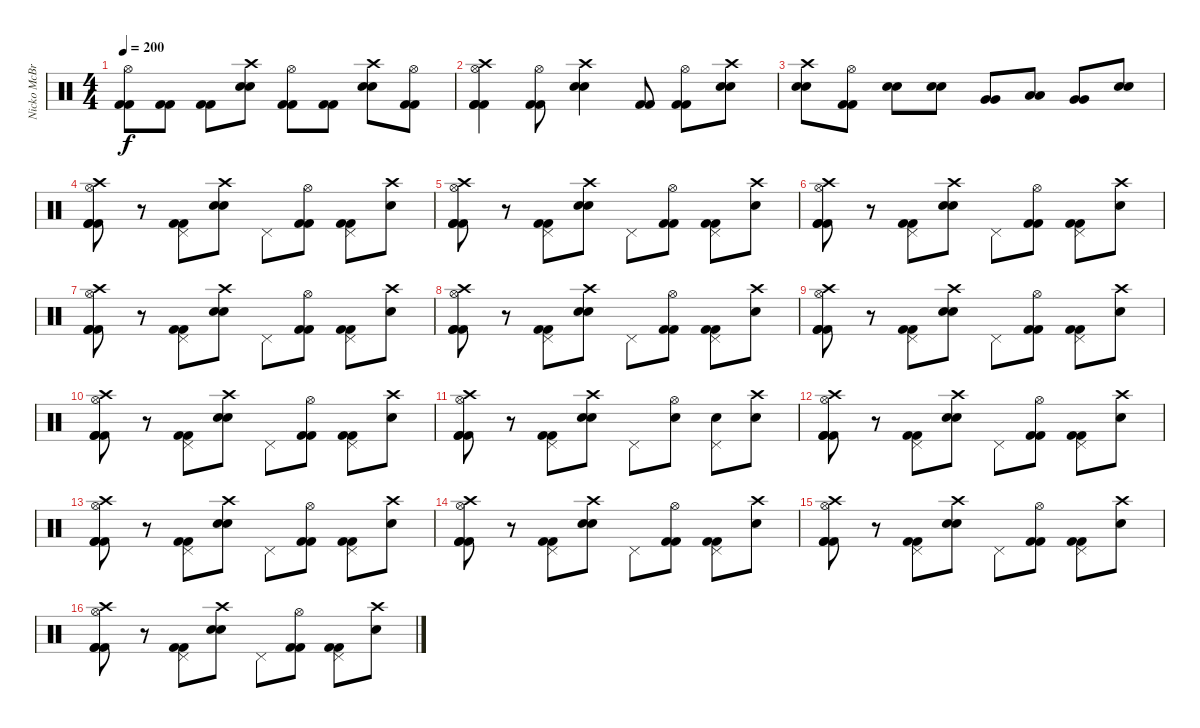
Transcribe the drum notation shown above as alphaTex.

\track ("Nicko McBrain" "Nicko McBr") {instrument percussion}
\staff {score}
\articulation defaults
\ts (4 4)
\tempo 200
\clef neutral
\ks c
("Hi-Hat (open)" "Kick (hit) 2" "Kick (hit) 2").8{dy f} ("Kick (hit) 2" "Kick (hit) 2").8 ("Kick (hit) 2" "Kick (hit) 2").8 ("Crash high (hit)" "Snare (hit) 2" "Snare (hit) 2").8 ("Hi-Hat (open)" "Kick (hit) 2" "Kick (hit) 2").8 ("Kick (hit) 2" "Kick (hit) 2").8 ("Crash high (hit)" "Snare (hit) 2" "Snare (hit) 2").8 ("Hi-Hat (open)" "Kick (hit) 2" "Kick (hit) 2").8 |
("Crash high (hit)" "Hi-Hat (open)" "Kick (hit) 2" "Kick (hit) 2" "Kick (hit) 2").4 ("Hi-Hat (open)" "Kick (hit) 2" "Kick (hit) 2").8 ("Crash high (hit)" "Snare (hit) 2" "Snare (hit) 2").4 ("Kick (hit) 2" "Kick (hit) 2").8 ("Hi-Hat (open)" "Kick (hit) 2" "Kick (hit) 2").8 ("Crash high (hit)" "Snare (hit) 2" "Snare (hit) 2").8 |
("Crash high (hit)" "Snare (hit) 2" "Snare (hit) 2").8 ("Hi-Hat (open)" "Kick (hit) 2" "Kick (hit) 2").8 ("Snare (hit) 2" "Snare (hit) 2").8 ("Snare (hit) 2" "Snare (hit) 2").8 ("Very Low Tom (hit)" "Very Low Tom (hit)").8 ("Low Floor Tom (hit)" "Low Floor Tom (hit)").8 ("Very Low Tom (hit)" "Very Low Tom (hit)").8 ("Snare (hit) 2" "Snare (hit) 2").8 |
("Crash high (hit)" "Hi-Hat (open)" "Kick (hit) 2" "Kick (hit) 2" "Kick (hit) 2").8 r.8 ("Pedal Hi-Hat (hit)" "Kick (hit) 2" "Kick (hit) 2").8 ("Crash high (hit)" "Snare (hit) 2" "Snare (hit) 2").8 "Pedal Hi-Hat (hit)".8 ("Hi-Hat (open)" "Kick (hit) 2" "Kick (hit) 2").8 ("Pedal Hi-Hat (hit)" "Kick (hit) 2" "Kick (hit) 2").8 ("Crash high (hit)" "Snare (hit) 2").8 |
("Crash high (hit)" "Hi-Hat (open)" "Kick (hit) 2" "Kick (hit) 2" "Kick (hit) 2").8 r.8 ("Pedal Hi-Hat (hit)" "Kick (hit) 2" "Kick (hit) 2").8 ("Crash high (hit)" "Snare (hit) 2" "Snare (hit) 2").8 "Pedal Hi-Hat (hit)".8 ("Hi-Hat (open)" "Kick (hit) 2" "Kick (hit) 2").8 ("Pedal Hi-Hat (hit)" "Kick (hit) 2" "Kick (hit) 2").8 ("Crash high (hit)" "Snare (hit) 2").8 |
("Crash high (hit)" "Hi-Hat (open)" "Kick (hit) 2" "Kick (hit) 2" "Kick (hit) 2").8 r.8 ("Pedal Hi-Hat (hit)" "Kick (hit) 2" "Kick (hit) 2").8 ("Crash high (hit)" "Snare (hit) 2" "Snare (hit) 2").8 "Pedal Hi-Hat (hit)".8 ("Hi-Hat (open)" "Kick (hit) 2" "Kick (hit) 2").8 ("Pedal Hi-Hat (hit)" "Kick (hit) 2" "Kick (hit) 2").8 ("Crash high (hit)" "Snare (hit) 2").8 |
("Crash high (hit)" "Hi-Hat (open)" "Kick (hit) 2" "Kick (hit) 2" "Kick (hit) 2").8 r.8 ("Pedal Hi-Hat (hit)" "Kick (hit) 2" "Kick (hit) 2").8 ("Crash high (hit)" "Snare (hit) 2" "Snare (hit) 2").8 "Pedal Hi-Hat (hit)".8 ("Hi-Hat (open)" "Kick (hit) 2" "Kick (hit) 2").8 ("Pedal Hi-Hat (hit)" "Kick (hit) 2" "Kick (hit) 2").8 ("Crash high (hit)" "Snare (hit) 2").8 |
("Crash high (hit)" "Hi-Hat (open)" "Kick (hit) 2" "Kick (hit) 2" "Kick (hit) 2").8 r.8 ("Pedal Hi-Hat (hit)" "Kick (hit) 2" "Kick (hit) 2").8 ("Crash high (hit)" "Snare (hit) 2" "Snare (hit) 2").8 "Pedal Hi-Hat (hit)".8 ("Hi-Hat (open)" "Kick (hit) 2" "Kick (hit) 2").8 ("Pedal Hi-Hat (hit)" "Kick (hit) 2" "Kick (hit) 2").8 ("Crash high (hit)" "Snare (hit) 2").8 |
("Crash high (hit)" "Hi-Hat (open)" "Kick (hit) 2" "Kick (hit) 2" "Kick (hit) 2").8 r.8 ("Pedal Hi-Hat (hit)" "Kick (hit) 2" "Kick (hit) 2").8 ("Crash high (hit)" "Snare (hit) 2" "Snare (hit) 2").8 "Pedal Hi-Hat (hit)".8 ("Hi-Hat (open)" "Kick (hit) 2" "Kick (hit) 2").8 ("Pedal Hi-Hat (hit)" "Kick (hit) 2" "Kick (hit) 2").8 ("Crash high (hit)" "Snare (hit) 2").8 |
("Crash high (hit)" "Hi-Hat (open)" "Kick (hit) 2" "Kick (hit) 2" "Kick (hit) 2").8 r.8 ("Pedal Hi-Hat (hit)" "Kick (hit) 2" "Kick (hit) 2").8 ("Crash high (hit)" "Snare (hit) 2" "Snare (hit) 2").8 "Pedal Hi-Hat (hit)".8 ("Hi-Hat (open)" "Kick (hit) 2" "Kick (hit) 2").8 ("Pedal Hi-Hat (hit)" "Kick (hit) 2" "Kick (hit) 2").8 ("Crash high (hit)" "Snare (hit) 2").8 |
("Crash high (hit)" "Hi-Hat (open)" "Kick (hit) 2" "Kick (hit) 2" "Kick (hit) 2").8 r.8 ("Pedal Hi-Hat (hit)" "Kick (hit) 2" "Kick (hit) 2").8 ("Crash high (hit)" "Snare (hit) 2" "Snare (hit) 2").8 "Pedal Hi-Hat (hit)".8 ("Hi-Hat (open)" "Snare (hit) 2").8 ("Pedal Hi-Hat (hit)" "Snare (hit) 2").8 ("Crash high (hit)" "Snare (hit) 2").8 |
("Crash high (hit)" "Hi-Hat (open)" "Kick (hit) 2" "Kick (hit) 2" "Kick (hit) 2").8 r.8 ("Pedal Hi-Hat (hit)" "Kick (hit) 2" "Kick (hit) 2").8 ("Crash high (hit)" "Snare (hit) 2" "Snare (hit) 2").8 "Pedal Hi-Hat (hit)".8 ("Hi-Hat (open)" "Kick (hit) 2" "Kick (hit) 2").8 ("Pedal Hi-Hat (hit)" "Kick (hit) 2" "Kick (hit) 2").8 ("Crash high (hit)" "Snare (hit) 2").8 |
("Crash high (hit)" "Hi-Hat (open)" "Kick (hit) 2" "Kick (hit) 2" "Kick (hit) 2").8 r.8 ("Pedal Hi-Hat (hit)" "Kick (hit) 2" "Kick (hit) 2").8 ("Crash high (hit)" "Snare (hit) 2" "Snare (hit) 2").8 "Pedal Hi-Hat (hit)".8 ("Hi-Hat (open)" "Kick (hit) 2" "Kick (hit) 2").8 ("Pedal Hi-Hat (hit)" "Kick (hit) 2" "Kick (hit) 2").8 ("Crash high (hit)" "Snare (hit) 2").8 |
("Crash high (hit)" "Hi-Hat (open)" "Kick (hit) 2" "Kick (hit) 2" "Kick (hit) 2").8 r.8 ("Pedal Hi-Hat (hit)" "Kick (hit) 2" "Kick (hit) 2").8 ("Crash high (hit)" "Snare (hit) 2" "Snare (hit) 2").8 "Pedal Hi-Hat (hit)".8 ("Hi-Hat (open)" "Kick (hit) 2" "Kick (hit) 2").8 ("Pedal Hi-Hat (hit)" "Kick (hit) 2" "Kick (hit) 2").8 ("Crash high (hit)" "Snare (hit) 2").8 |
("Crash high (hit)" "Hi-Hat (open)" "Kick (hit) 2" "Kick (hit) 2" "Kick (hit) 2").8 r.8 ("Pedal Hi-Hat (hit)" "Kick (hit) 2" "Kick (hit) 2").8 ("Crash high (hit)" "Snare (hit) 2" "Snare (hit) 2").8 "Pedal Hi-Hat (hit)".8 ("Hi-Hat (open)" "Kick (hit) 2" "Kick (hit) 2").8 ("Pedal Hi-Hat (hit)" "Kick (hit) 2" "Kick (hit) 2").8 ("Crash high (hit)" "Snare (hit) 2").8 |
("Crash high (hit)" "Hi-Hat (open)" "Kick (hit) 2" "Kick (hit) 2" "Kick (hit) 2").8 r.8 ("Pedal Hi-Hat (hit)" "Kick (hit) 2" "Kick (hit) 2").8 ("Crash high (hit)" "Snare (hit) 2" "Snare (hit) 2").8 "Pedal Hi-Hat (hit)".8 ("Hi-Hat (open)" "Kick (hit) 2" "Kick (hit) 2").8 ("Pedal Hi-Hat (hit)" "Kick (hit) 2" "Kick (hit) 2").8 ("Crash high (hit)" "Snare (hit) 2").8
